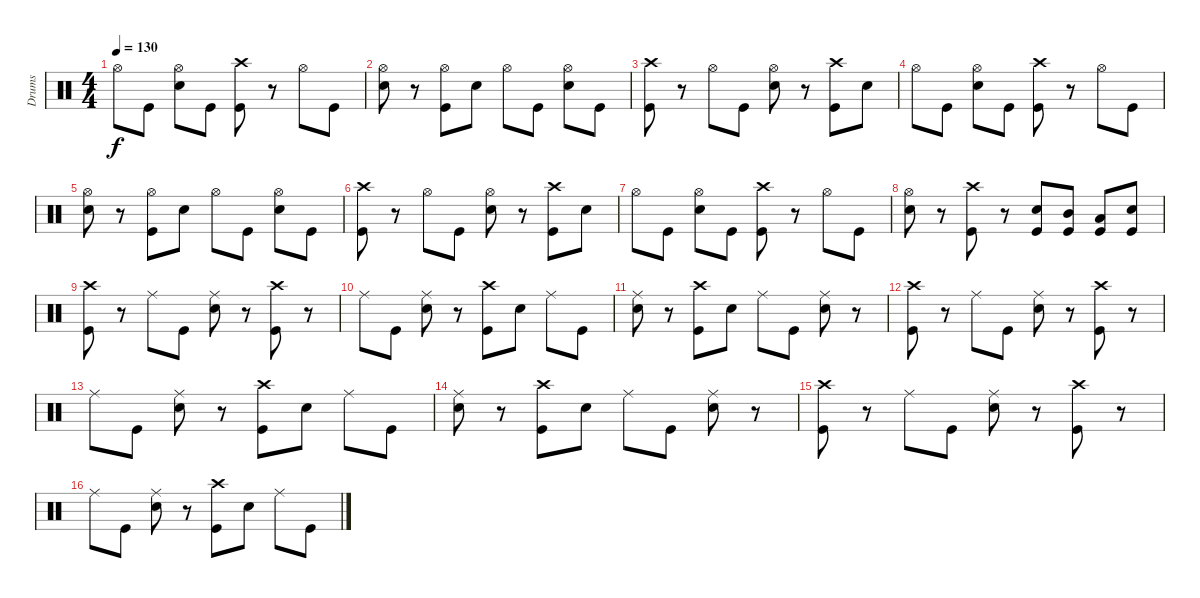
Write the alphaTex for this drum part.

\track ("Drums" "Drums") {instrument percussion}
\staff {score}
\articulation defaults
\ts (4 4)
\tempo 130
\clef neutral
\ks c "Hi-Hat (open)".8{dy f} "Kick (hit)".8
("Hi-Hat (open)" "Snare (hit) 2").8 "Kick (hit)".8 ("Crash high (hit)" "Kick (hit)").8 r.8 "Hi-Hat (open)".8 "Kick (hit)".8 |
("Hi-Hat (open)" "Snare (hit) 2").8 r.8 ("Hi-Hat (open)" "Kick (hit)").8 "Snare (hit) 2".8 "Hi-Hat (open)".8 "Kick (hit)".8 ("Hi-Hat (open)" "Snare (hit) 2").8 "Kick (hit)".8 |
("Crash high (hit)" "Kick (hit)").8 r.8 "Hi-Hat (open)".8 "Kick (hit)".8 ("Hi-Hat (open)" "Snare (hit) 2").8 r.8 ("Crash high (hit)" "Kick (hit)").8 "Snare (hit) 2".8 |
"Hi-Hat (open)".8 "Kick (hit)".8 ("Hi-Hat (open)" "Snare (hit) 2").8 "Kick (hit)".8 ("Crash high (hit)" "Kick (hit)").8 r.8 "Hi-Hat (open)".8 "Kick (hit)".8 |
("Hi-Hat (open)" "Snare (hit) 2").8 r.8 ("Hi-Hat (open)" "Kick (hit)").8 "Snare (hit) 2".8 "Hi-Hat (open)".8 "Kick (hit)".8 ("Hi-Hat (open)" "Snare (hit) 2").8 "Kick (hit)".8 |
("Crash high (hit)" "Kick (hit)").8 r.8 "Hi-Hat (open)".8 "Kick (hit)".8 ("Hi-Hat (open)" "Snare (hit) 2").8 r.8 ("Crash high (hit)" "Kick (hit)").8 "Snare (hit) 2".8 |
"Hi-Hat (open)".8 "Kick (hit)".8 ("Hi-Hat (open)" "Snare (hit) 2").8 "Kick (hit)".8 ("Crash high (hit)" "Kick (hit)").8 r.8 "Hi-Hat (open)".8 "Kick (hit)".8 |
("Hi-Hat (open)" "Snare (hit) 2").8 r.8 ("Crash high (hit)" "Kick (hit)").8 r.8 ("Snare (hit) 2" "Kick (hit)").8 ("Mid Tom (hit)" "Kick (hit)").8 ("Low Tom (hit)" "Kick (hit)").8 ("Snare (hit) 2" "Kick (hit)").8 |
("Crash high (hit)" "Kick (hit)").8 r.8 "Ride (middle)".8 "Kick (hit)".8 ("Ride (middle)" "Snare (hit) 2").8 r.8 ("Crash high (hit)" "Kick (hit)").8 r.8 |
"Ride (middle)".8 "Kick (hit)".8 ("Ride (middle)" "Snare (hit) 2").8 r.8 ("Crash high (hit)" "Kick (hit)").8 "Snare (hit) 2".8 "Ride (middle)".8 "Kick (hit)".8 |
("Ride (middle)" "Snare (hit) 2").8 r.8 ("Crash high (hit)" "Kick (hit)").8 "Snare (hit) 2".8 "Ride (middle)".8 "Kick (hit)".8 ("Ride (middle)" "Snare (hit) 2").8 r.8 |
("Crash high (hit)" "Kick (hit)").8 r.8 "Ride (middle)".8 "Kick (hit)".8 ("Ride (middle)" "Snare (hit) 2").8 r.8 ("Crash high (hit)" "Kick (hit)").8 r.8 |
"Ride (middle)".8 "Kick (hit)".8 ("Ride (middle)" "Snare (hit) 2").8 r.8 ("Crash high (hit)" "Kick (hit)").8 "Snare (hit) 2".8 "Ride (middle)".8 "Kick (hit)".8 |
("Ride (middle)" "Snare (hit) 2").8 r.8 ("Crash high (hit)" "Kick (hit)").8 "Snare (hit) 2".8 "Ride (middle)".8 "Kick (hit)".8 ("Ride (middle)" "Snare (hit) 2").8 r.8 |
("Crash high (hit)" "Kick (hit)").8 r.8 "Ride (middle)".8 "Kick (hit)".8 ("Ride (middle)" "Snare (hit) 2").8 r.8 ("Crash high (hit)" "Kick (hit)").8 r.8 |
"Ride (middle)".8 "Kick (hit)".8 ("Ride (middle)" "Snare (hit) 2").8 r.8 ("Crash high (hit)" "Kick (hit)").8 "Snare (hit) 2".8 "Ride (middle)".8 "Kick (hit)".8
